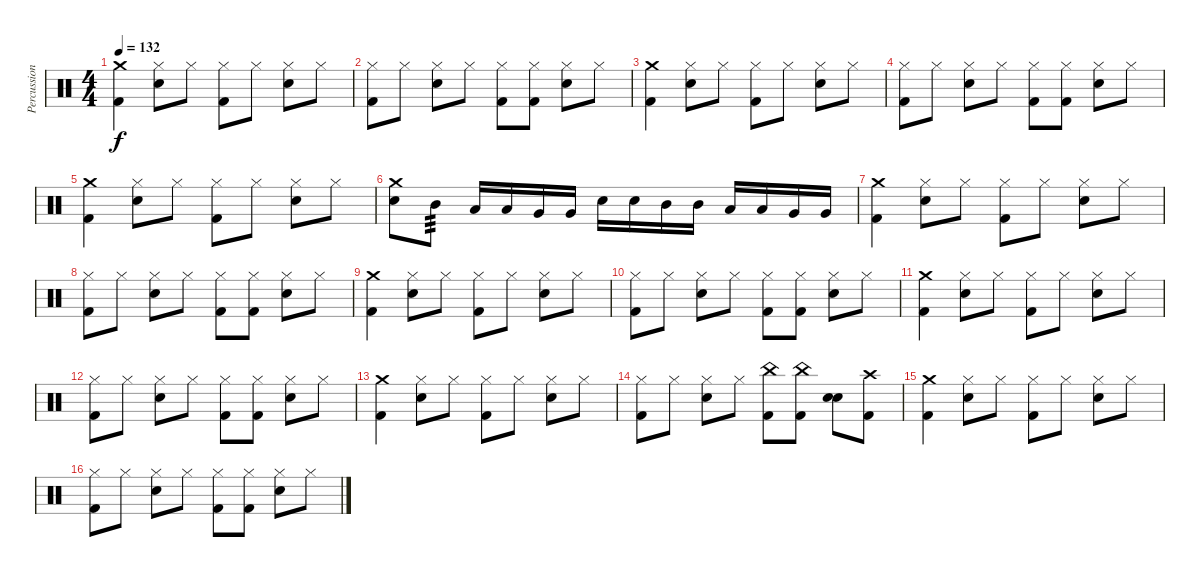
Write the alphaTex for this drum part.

\track ("Percussion" "Percussion") {instrument percussion}
\staff {score}
\articulation defaults
\ts (4 4)
\tempo 132
\clef neutral
\ks c
("Kick (hit) 2" "Crash medium (hit)").4{dy f} ("Snare (hit) 2" "Hi-Hat (closed)").8 "Hi-Hat (closed)".8 ("Kick (hit) 2" "Hi-Hat (closed)").8 "Hi-Hat (closed)".8 ("Snare (hit) 2" "Hi-Hat (closed)").8 "Hi-Hat (closed)".8 |
("Kick (hit) 2" "Hi-Hat (closed)").8 "Hi-Hat (closed)".8 ("Snare (hit) 2" "Hi-Hat (closed)").8 "Hi-Hat (closed)".8 ("Kick (hit) 2" "Hi-Hat (closed)").8 ("Kick (hit) 2" "Hi-Hat (closed)").8 ("Snare (hit) 2" "Hi-Hat (closed)").8 "Hi-Hat (closed)".8 |
("Kick (hit) 2" "Crash medium (hit)").4 ("Snare (hit) 2" "Hi-Hat (closed)").8 "Hi-Hat (closed)".8 ("Kick (hit) 2" "Hi-Hat (closed)").8 "Hi-Hat (closed)".8 ("Snare (hit) 2" "Hi-Hat (closed)").8 "Hi-Hat (closed)".8 |
("Kick (hit) 2" "Hi-Hat (closed)").8 "Hi-Hat (closed)".8 ("Snare (hit) 2" "Hi-Hat (closed)").8 "Hi-Hat (closed)".8 ("Kick (hit) 2" "Hi-Hat (closed)").8 ("Kick (hit) 2" "Hi-Hat (closed)").8 ("Snare (hit) 2" "Hi-Hat (closed)").8 "Hi-Hat (closed)".8 |
("Kick (hit) 2" "Crash medium (hit)").4 ("Snare (hit) 2" "Hi-Hat (closed)").8 "Hi-Hat (closed)".8 ("Kick (hit) 2" "Hi-Hat (closed)").8 "Hi-Hat (closed)".8 ("Snare (hit) 2" "Hi-Hat (closed)").8 "Hi-Hat (closed)".8 |
("Snare (hit) 2" "Crash medium (hit)").8 "Mid Tom (hit)".8{tp 3} "Low Tom (hit)".16 "Low Tom (hit)".16 "Very Low Tom (hit)".16 "Very Low Tom (hit)".16 "Snare (hit) 2".16 "Snare (hit) 2".16 "Mid Tom (hit)".16 "Mid Tom (hit)".16 "Low Tom (hit)".16 "Low Tom (hit)".16 "Very Low Tom (hit)".16 "Very Low Tom (hit)".16 |
("Kick (hit) 2" "Crash medium (hit)").4 ("Snare (hit) 2" "Hi-Hat (closed)").8 "Hi-Hat (closed)".8 ("Kick (hit) 2" "Hi-Hat (closed)").8 "Hi-Hat (closed)".8 ("Snare (hit) 2" "Hi-Hat (closed)").8 "Hi-Hat (closed)".8 |
("Kick (hit) 2" "Hi-Hat (closed)").8 "Hi-Hat (closed)".8 ("Snare (hit) 2" "Hi-Hat (closed)").8 "Hi-Hat (closed)".8 ("Kick (hit) 2" "Hi-Hat (closed)").8 ("Kick (hit) 2" "Hi-Hat (closed)").8 ("Snare (hit) 2" "Hi-Hat (closed)").8 "Hi-Hat (closed)".8 |
("Kick (hit) 2" "Crash medium (hit)").4 ("Snare (hit) 2" "Hi-Hat (closed)").8 "Hi-Hat (closed)".8 ("Kick (hit) 2" "Hi-Hat (closed)").8 "Hi-Hat (closed)".8 ("Snare (hit) 2" "Hi-Hat (closed)").8 "Hi-Hat (closed)".8 |
("Kick (hit) 2" "Hi-Hat (closed)").8 "Hi-Hat (closed)".8 ("Snare (hit) 2" "Hi-Hat (closed)").8 "Hi-Hat (closed)".8 ("Kick (hit) 2" "Hi-Hat (closed)").8 ("Kick (hit) 2" "Hi-Hat (closed)").8 ("Snare (hit) 2" "Hi-Hat (closed)").8 "Hi-Hat (closed)".8 |
("Kick (hit) 2" "Crash medium (hit)").4 ("Snare (hit) 2" "Hi-Hat (closed)").8 "Hi-Hat (closed)".8 ("Kick (hit) 2" "Hi-Hat (closed)").8 "Hi-Hat (closed)".8 ("Snare (hit) 2" "Hi-Hat (closed)").8 "Hi-Hat (closed)".8 |
("Kick (hit) 2" "Hi-Hat (closed)").8 "Hi-Hat (closed)".8 ("Snare (hit) 2" "Hi-Hat (closed)").8 "Hi-Hat (closed)".8 ("Kick (hit) 2" "Hi-Hat (closed)").8 ("Kick (hit) 2" "Hi-Hat (closed)").8 ("Snare (hit) 2" "Hi-Hat (closed)").8 "Hi-Hat (closed)".8 |
("Kick (hit) 2" "Crash medium (hit)").4 ("Snare (hit) 2" "Hi-Hat (closed)").8 "Hi-Hat (closed)".8 ("Kick (hit) 2" "Hi-Hat (closed)").8 "Hi-Hat (closed)".8 ("Snare (hit) 2" "Hi-Hat (closed)").8 "Hi-Hat (closed)".8 |
("Kick (hit) 2" "Hi-Hat (closed)").8 "Hi-Hat (closed)".8 ("Snare (hit) 2" "Hi-Hat (closed)").8 "Hi-Hat (closed)".8 ("Kick (hit) 2" "China (hit)").8 ("Kick (hit) 2" "China (hit)").8 ("Snare (hit) 2" "Snare (hit) 2").8 ("Kick (hit) 2" "Crash high (hit)").8 |
("Kick (hit) 2" "Crash medium (hit)").4 ("Snare (hit) 2" "Hi-Hat (closed)").8 "Hi-Hat (closed)".8 ("Kick (hit) 2" "Hi-Hat (closed)").8 "Hi-Hat (closed)".8 ("Snare (hit) 2" "Hi-Hat (closed)").8 "Hi-Hat (closed)".8 |
("Kick (hit) 2" "Hi-Hat (closed)").8 "Hi-Hat (closed)".8 ("Snare (hit) 2" "Hi-Hat (closed)").8 "Hi-Hat (closed)".8 ("Kick (hit) 2" "Hi-Hat (closed)").8 ("Kick (hit) 2" "Hi-Hat (closed)").8 ("Snare (hit) 2" "Hi-Hat (closed)").8 "Hi-Hat (closed)".8
